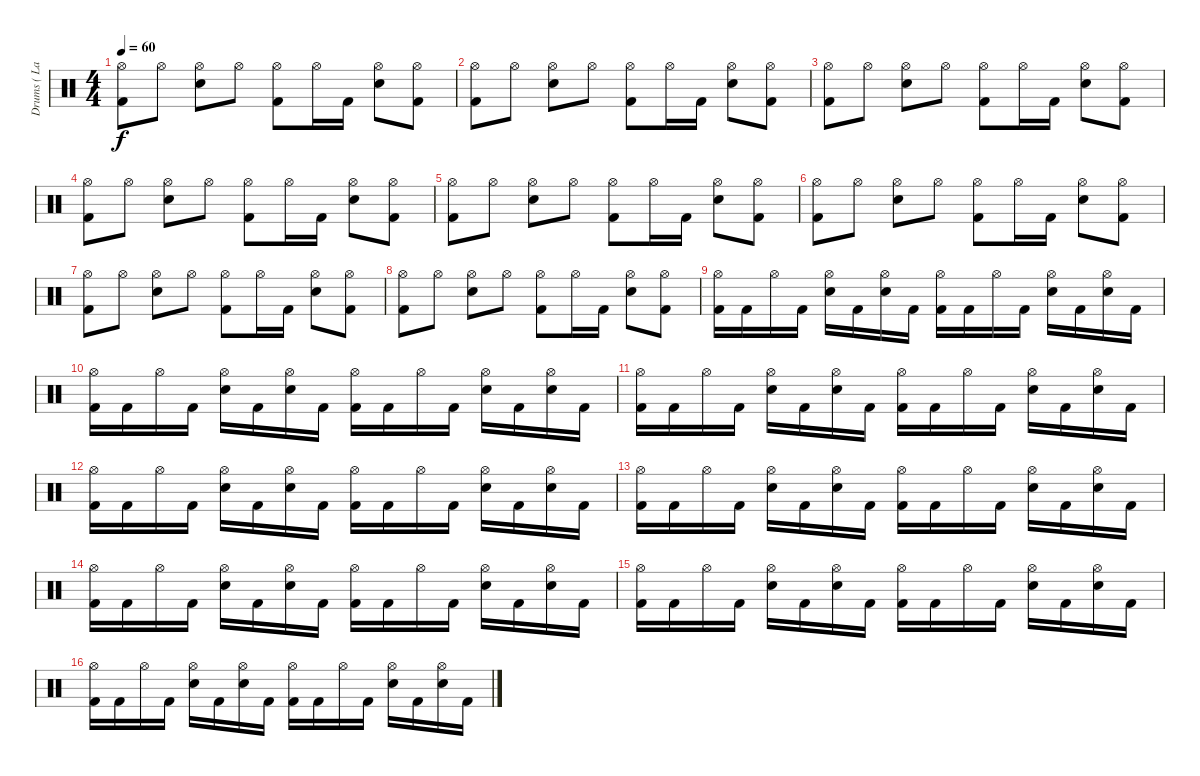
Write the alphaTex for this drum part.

\track ("Drums ( Lars )" "Drums ( La") {instrument percussion}
\staff {score}
\articulation defaults
\ts (4 4)
\tempo 60
\clef neutral
\ks c
("Kick (hit) 2" "Hi-Hat (open)").8{dy f} "Hi-Hat (open)".8 ("Snare (hit) 2" "Hi-Hat (open)").8 "Hi-Hat (open)".8 ("Kick (hit) 2" "Hi-Hat (open)").8 "Hi-Hat (open)".16 "Kick (hit) 2".16 ("Snare (hit) 2" "Hi-Hat (open)").8 ("Kick (hit) 2" "Hi-Hat (open)").8 |
("Kick (hit) 2" "Hi-Hat (open)").8 "Hi-Hat (open)".8 ("Snare (hit) 2" "Hi-Hat (open)").8 "Hi-Hat (open)".8 ("Kick (hit) 2" "Hi-Hat (open)").8 "Hi-Hat (open)".16 "Kick (hit) 2".16 ("Snare (hit) 2" "Hi-Hat (open)").8 ("Kick (hit) 2" "Hi-Hat (open)").8 |
("Kick (hit) 2" "Hi-Hat (open)").8 "Hi-Hat (open)".8 ("Snare (hit) 2" "Hi-Hat (open)").8 "Hi-Hat (open)".8 ("Kick (hit) 2" "Hi-Hat (open)").8 "Hi-Hat (open)".16 "Kick (hit) 2".16 ("Snare (hit) 2" "Hi-Hat (open)").8 ("Kick (hit) 2" "Hi-Hat (open)").8 |
("Kick (hit) 2" "Hi-Hat (open)").8 "Hi-Hat (open)".8 ("Snare (hit) 2" "Hi-Hat (open)").8 "Hi-Hat (open)".8 ("Kick (hit) 2" "Hi-Hat (open)").8 "Hi-Hat (open)".16 "Kick (hit) 2".16 ("Snare (hit) 2" "Hi-Hat (open)").8 ("Kick (hit) 2" "Hi-Hat (open)").8 |
("Kick (hit) 2" "Hi-Hat (open)").8 "Hi-Hat (open)".8 ("Snare (hit) 2" "Hi-Hat (open)").8 "Hi-Hat (open)".8 ("Kick (hit) 2" "Hi-Hat (open)").8 "Hi-Hat (open)".16 "Kick (hit) 2".16 ("Snare (hit) 2" "Hi-Hat (open)").8 ("Kick (hit) 2" "Hi-Hat (open)").8 |
("Kick (hit) 2" "Hi-Hat (open)").8 "Hi-Hat (open)".8 ("Snare (hit) 2" "Hi-Hat (open)").8 "Hi-Hat (open)".8 ("Kick (hit) 2" "Hi-Hat (open)").8 "Hi-Hat (open)".16 "Kick (hit) 2".16 ("Snare (hit) 2" "Hi-Hat (open)").8 ("Kick (hit) 2" "Hi-Hat (open)").8 |
("Kick (hit) 2" "Hi-Hat (open)").8 "Hi-Hat (open)".8 ("Snare (hit) 2" "Hi-Hat (open)").8 "Hi-Hat (open)".8 ("Kick (hit) 2" "Hi-Hat (open)").8 "Hi-Hat (open)".16 "Kick (hit) 2".16 ("Snare (hit) 2" "Hi-Hat (open)").8 ("Kick (hit) 2" "Hi-Hat (open)").8 |
("Kick (hit) 2" "Hi-Hat (open)").8 "Hi-Hat (open)".8 ("Snare (hit) 2" "Hi-Hat (open)").8 "Hi-Hat (open)".8 ("Kick (hit) 2" "Hi-Hat (open)").8 "Hi-Hat (open)".16 "Kick (hit) 2".16 ("Snare (hit) 2" "Hi-Hat (open)").8 ("Kick (hit) 2" "Hi-Hat (open)").8 |
("Kick (hit) 2" "Hi-Hat (open)").16 "Kick (hit) 2".16 "Hi-Hat (open)".16 "Kick (hit) 2".16 ("Snare (hit) 2" "Hi-Hat (open)").16 "Kick (hit) 2".16 ("Snare (hit) 2" "Hi-Hat (open)").16 "Kick (hit) 2".16 ("Kick (hit) 2" "Hi-Hat (open)").16 "Kick (hit) 2".16 "Hi-Hat (open)".16 "Kick (hit) 2".16 ("Snare (hit) 2" "Hi-Hat (open)").16 "Kick (hit) 2".16 ("Snare (hit) 2" "Hi-Hat (open)").16 "Kick (hit) 2".16 |
("Kick (hit) 2" "Hi-Hat (open)").16 "Kick (hit) 2".16 "Hi-Hat (open)".16 "Kick (hit) 2".16 ("Snare (hit) 2" "Hi-Hat (open)").16 "Kick (hit) 2".16 ("Snare (hit) 2" "Hi-Hat (open)").16 "Kick (hit) 2".16 ("Kick (hit) 2" "Hi-Hat (open)").16 "Kick (hit) 2".16 "Hi-Hat (open)".16 "Kick (hit) 2".16 ("Snare (hit) 2" "Hi-Hat (open)").16 "Kick (hit) 2".16 ("Snare (hit) 2" "Hi-Hat (open)").16 "Kick (hit) 2".16 |
("Kick (hit) 2" "Hi-Hat (open)").16 "Kick (hit) 2".16 "Hi-Hat (open)".16 "Kick (hit) 2".16 ("Snare (hit) 2" "Hi-Hat (open)").16 "Kick (hit) 2".16 ("Snare (hit) 2" "Hi-Hat (open)").16 "Kick (hit) 2".16 ("Kick (hit) 2" "Hi-Hat (open)").16 "Kick (hit) 2".16 "Hi-Hat (open)".16 "Kick (hit) 2".16 ("Snare (hit) 2" "Hi-Hat (open)").16 "Kick (hit) 2".16 ("Snare (hit) 2" "Hi-Hat (open)").16 "Kick (hit) 2".16 |
("Kick (hit) 2" "Hi-Hat (open)").16 "Kick (hit) 2".16 "Hi-Hat (open)".16 "Kick (hit) 2".16 ("Snare (hit) 2" "Hi-Hat (open)").16 "Kick (hit) 2".16 ("Snare (hit) 2" "Hi-Hat (open)").16 "Kick (hit) 2".16 ("Kick (hit) 2" "Hi-Hat (open)").16 "Kick (hit) 2".16 "Hi-Hat (open)".16 "Kick (hit) 2".16 ("Snare (hit) 2" "Hi-Hat (open)").16 "Kick (hit) 2".16 ("Snare (hit) 2" "Hi-Hat (open)").16 "Kick (hit) 2".16 |
("Kick (hit) 2" "Hi-Hat (open)").16 "Kick (hit) 2".16 "Hi-Hat (open)".16 "Kick (hit) 2".16 ("Snare (hit) 2" "Hi-Hat (open)").16 "Kick (hit) 2".16 ("Snare (hit) 2" "Hi-Hat (open)").16 "Kick (hit) 2".16 ("Kick (hit) 2" "Hi-Hat (open)").16 "Kick (hit) 2".16 "Hi-Hat (open)".16 "Kick (hit) 2".16 ("Snare (hit) 2" "Hi-Hat (open)").16 "Kick (hit) 2".16 ("Snare (hit) 2" "Hi-Hat (open)").16 "Kick (hit) 2".16 |
("Kick (hit) 2" "Hi-Hat (open)").16 "Kick (hit) 2".16 "Hi-Hat (open)".16 "Kick (hit) 2".16 ("Snare (hit) 2" "Hi-Hat (open)").16 "Kick (hit) 2".16 ("Snare (hit) 2" "Hi-Hat (open)").16 "Kick (hit) 2".16 ("Kick (hit) 2" "Hi-Hat (open)").16 "Kick (hit) 2".16 "Hi-Hat (open)".16 "Kick (hit) 2".16 ("Snare (hit) 2" "Hi-Hat (open)").16 "Kick (hit) 2".16 ("Snare (hit) 2" "Hi-Hat (open)").16 "Kick (hit) 2".16 |
("Kick (hit) 2" "Hi-Hat (open)").16 "Kick (hit) 2".16 "Hi-Hat (open)".16 "Kick (hit) 2".16 ("Snare (hit) 2" "Hi-Hat (open)").16 "Kick (hit) 2".16 ("Snare (hit) 2" "Hi-Hat (open)").16 "Kick (hit) 2".16 ("Kick (hit) 2" "Hi-Hat (open)").16 "Kick (hit) 2".16 "Hi-Hat (open)".16 "Kick (hit) 2".16 ("Snare (hit) 2" "Hi-Hat (open)").16 "Kick (hit) 2".16 ("Snare (hit) 2" "Hi-Hat (open)").16 "Kick (hit) 2".16 |
("Kick (hit) 2" "Hi-Hat (open)").16 "Kick (hit) 2".16 "Hi-Hat (open)".16 "Kick (hit) 2".16 ("Snare (hit) 2" "Hi-Hat (open)").16 "Kick (hit) 2".16 ("Snare (hit) 2" "Hi-Hat (open)").16 "Kick (hit) 2".16 ("Kick (hit) 2" "Hi-Hat (open)").16 "Kick (hit) 2".16 "Hi-Hat (open)".16 "Kick (hit) 2".16 ("Snare (hit) 2" "Hi-Hat (open)").16 "Kick (hit) 2".16 ("Snare (hit) 2" "Hi-Hat (open)").16 "Kick (hit) 2".16
